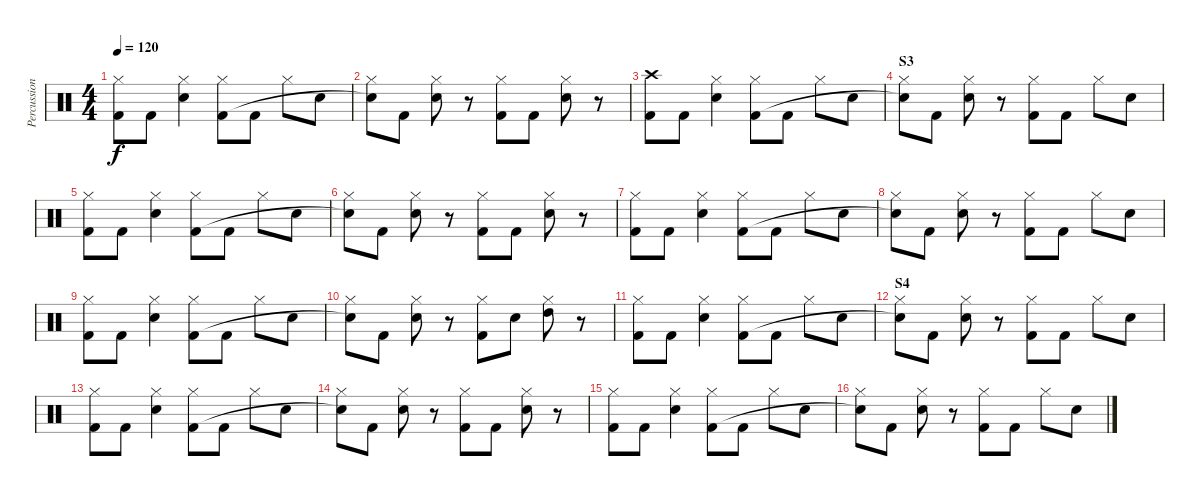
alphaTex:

\track ("Percussion" "Percussion") {instrument percussion}
\staff {score}
\articulation defaults
\ts (4 4)
\tempo 120
\clef neutral
\ks c
("Hi-Hat (closed)" "Kick (hit) 2").8{dy f} "Kick (hit) 2".8 ("Hi-Hat (closed)" "Snare (hit) 2").4 ("Hi-Hat (closed)" "Kick (hit) 2").8 "Kick (hit) 2".8 "Hi-Hat (closed)".8 "Snare (hit) 2".8 |
("Hi-Hat (closed)" "Snare (hit)"{t}).8 "Kick (hit) 2".8 ("Hi-Hat (closed)" "Snare (hit) 2").8 r.8 ("Hi-Hat (closed)" "Kick (hit) 2").8 "Kick (hit) 2".8 ("Hi-Hat (closed)" "Snare (hit) 2").8 r.8 |
("Crash high (hit)" "Kick (hit) 2").8 "Kick (hit) 2".8 ("Hi-Hat (closed)" "Snare (hit) 2").4 ("Hi-Hat (closed)" "Kick (hit) 2").8 "Kick (hit) 2".8 "Hi-Hat (closed)".8 "Snare (hit) 2".8 |
\section ("" "S3")
("Hi-Hat (closed)" "Snare (hit)"{t}).8 "Kick (hit) 2".8 ("Hi-Hat (closed)" "Snare (hit) 2").8 r.8 ("Hi-Hat (closed)" "Kick (hit) 2").8 "Kick (hit) 2".8 "Hi-Hat (closed)".8 "Snare (hit) 2".8 |
("Hi-Hat (closed)" "Kick (hit) 2").8 "Kick (hit) 2".8 ("Hi-Hat (closed)" "Snare (hit) 2").4 ("Hi-Hat (closed)" "Kick (hit) 2").8 "Kick (hit) 2".8 "Hi-Hat (closed)".8 "Snare (hit) 2".8 |
("Hi-Hat (closed)" "Snare (hit)"{t}).8 "Kick (hit) 2".8 ("Hi-Hat (closed)" "Snare (hit) 2").8 r.8 ("Hi-Hat (closed)" "Kick (hit) 2").8 "Kick (hit) 2".8 ("Hi-Hat (closed)" "Snare (hit) 2").8 r.8 |
("Hi-Hat (closed)" "Kick (hit) 2").8 "Kick (hit) 2".8 ("Hi-Hat (closed)" "Snare (hit) 2").4 ("Hi-Hat (closed)" "Kick (hit) 2").8 "Kick (hit) 2".8 "Hi-Hat (closed)".8 "Snare (hit) 2".8 |
("Hi-Hat (closed)" "Snare (hit)"{t}).8 "Kick (hit) 2".8 ("Hi-Hat (closed)" "Snare (hit) 2").8 r.8 ("Hi-Hat (closed)" "Kick (hit) 2").8 "Kick (hit) 2".8 "Hi-Hat (closed)".8 "Snare (hit) 2".8 |
("Hi-Hat (closed)" "Kick (hit) 2").8 "Kick (hit) 2".8 ("Hi-Hat (closed)" "Snare (hit) 2").4 ("Hi-Hat (closed)" "Kick (hit) 2").8 "Kick (hit) 2".8 "Hi-Hat (closed)".8 "Snare (hit) 2".8 |
("Hi-Hat (closed)" "Snare (hit)"{t}).8 "Kick (hit) 2".8 ("Hi-Hat (closed)" "Snare (hit) 2").8 r.8 ("Hi-Hat (closed)" "Kick (hit) 2").8 "Snare (hit) 2".8 ("Hi-Hat (closed)" "High Tom (hit)").8 r.8 |
("Hi-Hat (closed)" "Kick (hit) 2").8 "Kick (hit) 2".8 ("Hi-Hat (closed)" "Snare (hit) 2").4 ("Hi-Hat (closed)" "Kick (hit) 2").8 "Kick (hit) 2".8 "Hi-Hat (closed)".8 "Snare (hit) 2".8 |
\section ("" "S4")
("Hi-Hat (closed)" "Snare (hit)"{t}).8 "Kick (hit) 2".8 ("Hi-Hat (closed)" "Snare (hit) 2").8 r.8 ("Hi-Hat (closed)" "Kick (hit) 2").8 "Kick (hit) 2".8 "Hi-Hat (closed)".8 "Snare (hit) 2".8 |
("Hi-Hat (closed)" "Kick (hit) 2").8 "Kick (hit) 2".8 ("Hi-Hat (closed)" "Snare (hit) 2").4 ("Hi-Hat (closed)" "Kick (hit) 2").8 "Kick (hit) 2".8 "Hi-Hat (closed)".8 "Snare (hit) 2".8 |
("Hi-Hat (closed)" "Snare (hit)"{t}).8 "Kick (hit) 2".8 ("Hi-Hat (closed)" "Snare (hit) 2").8 r.8 ("Hi-Hat (closed)" "Kick (hit) 2").8 "Kick (hit) 2".8 ("Hi-Hat (closed)" "Snare (hit) 2").8 r.8 |
("Hi-Hat (closed)" "Kick (hit) 2").8 "Kick (hit) 2".8 ("Hi-Hat (closed)" "Snare (hit) 2").4 ("Hi-Hat (closed)" "Kick (hit) 2").8 "Kick (hit) 2".8 "Hi-Hat (closed)".8 "Snare (hit) 2".8 |
("Hi-Hat (closed)" "Snare (hit)"{t}).8 "Kick (hit) 2".8 ("Hi-Hat (closed)" "Snare (hit) 2").8 r.8 ("Hi-Hat (closed)" "Kick (hit) 2").8 "Kick (hit) 2".8 "Hi-Hat (closed)".8 "Snare (hit) 2".8
